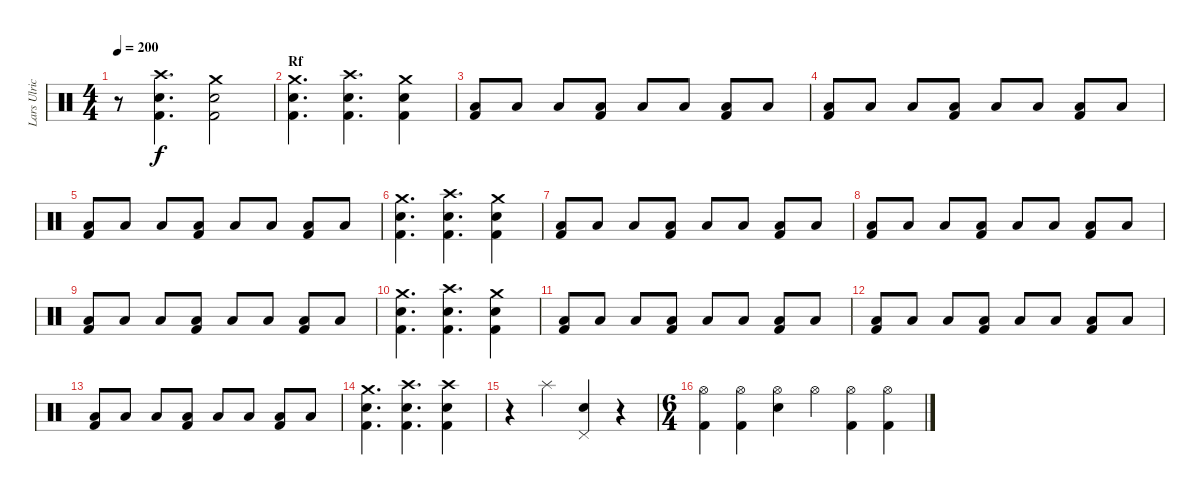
\track ("Lars Ulrich" "Lars Ulric") {instrument percussion}
\staff {score}
\articulation defaults
\ts (4 4)
\tempo 200
\clef neutral
\ks c
r.8{dy f} ("Crash high (hit)" "Electric Snare (hit)" "Kick (hit) 2").4{d} ("Crash medium (hit)" "Electric Snare (hit)" "Kick (hit) 2").2 |
\section ("" "Rf")
("Crash medium (hit)" "Electric Snare (hit)" "Kick (hit) 2").4{d} ("Crash high (hit)" "Electric Snare (hit)" "Kick (hit) 2").4{d} ("Crash medium (hit)" "Electric Snare (hit)" "Kick (hit) 2").4 |
("Low Floor Tom (hit)" "Kick (hit) 2").8 "Low Floor Tom (hit)".8 "Low Floor Tom (hit)".8 ("Low Floor Tom (hit)" "Kick (hit) 2").8 "Low Floor Tom (hit)".8 "Low Floor Tom (hit)".8 ("Low Floor Tom (hit)" "Kick (hit) 2").8 "Low Floor Tom (hit)".8 |
("Low Floor Tom (hit)" "Kick (hit) 2").8 "Low Floor Tom (hit)".8 "Low Floor Tom (hit)".8 ("Low Floor Tom (hit)" "Kick (hit) 2").8 "Low Floor Tom (hit)".8 "Low Floor Tom (hit)".8 ("Low Floor Tom (hit)" "Kick (hit) 2").8 "Low Floor Tom (hit)".8 |
("Low Floor Tom (hit)" "Kick (hit) 2").8 "Low Floor Tom (hit)".8 "Low Floor Tom (hit)".8 ("Low Floor Tom (hit)" "Kick (hit) 2").8 "Low Floor Tom (hit)".8 "Low Floor Tom (hit)".8 ("Low Floor Tom (hit)" "Kick (hit) 2").8 "Low Floor Tom (hit)".8 |
("Crash medium (hit)" "Electric Snare (hit)" "Kick (hit) 2").4{d} ("Crash high (hit)" "Electric Snare (hit)" "Kick (hit) 2").4{d} ("Crash medium (hit)" "Electric Snare (hit)" "Kick (hit) 2").4 |
("Low Floor Tom (hit)" "Kick (hit) 2").8 "Low Floor Tom (hit)".8 "Low Floor Tom (hit)".8 ("Low Floor Tom (hit)" "Kick (hit) 2").8 "Low Floor Tom (hit)".8 "Low Floor Tom (hit)".8 ("Low Floor Tom (hit)" "Kick (hit) 2").8 "Low Floor Tom (hit)".8 |
("Low Floor Tom (hit)" "Kick (hit) 2").8 "Low Floor Tom (hit)".8 "Low Floor Tom (hit)".8 ("Low Floor Tom (hit)" "Kick (hit) 2").8 "Low Floor Tom (hit)".8 "Low Floor Tom (hit)".8 ("Low Floor Tom (hit)" "Kick (hit) 2").8 "Low Floor Tom (hit)".8 |
("Low Floor Tom (hit)" "Kick (hit) 2").8 "Low Floor Tom (hit)".8 "Low Floor Tom (hit)".8 ("Low Floor Tom (hit)" "Kick (hit) 2").8 "Low Floor Tom (hit)".8 "Low Floor Tom (hit)".8 ("Low Floor Tom (hit)" "Kick (hit) 2").8 "Low Floor Tom (hit)".8 |
("Crash medium (hit)" "Electric Snare (hit)" "Kick (hit) 2").4{d} ("Crash high (hit)" "Electric Snare (hit)" "Kick (hit) 2").4{d} ("Crash medium (hit)" "Electric Snare (hit)" "Kick (hit) 2").4 |
("Low Floor Tom (hit)" "Kick (hit) 2").8 "Low Floor Tom (hit)".8 "Low Floor Tom (hit)".8 ("Low Floor Tom (hit)" "Kick (hit) 2").8 "Low Floor Tom (hit)".8 "Low Floor Tom (hit)".8 ("Low Floor Tom (hit)" "Kick (hit) 2").8 "Low Floor Tom (hit)".8 |
("Low Floor Tom (hit)" "Kick (hit) 2").8 "Low Floor Tom (hit)".8 "Low Floor Tom (hit)".8 ("Low Floor Tom (hit)" "Kick (hit) 2").8 "Low Floor Tom (hit)".8 "Low Floor Tom (hit)".8 ("Low Floor Tom (hit)" "Kick (hit) 2").8 "Low Floor Tom (hit)".8 |
("Low Floor Tom (hit)" "Kick (hit) 2").8 "Low Floor Tom (hit)".8 "Low Floor Tom (hit)".8 ("Low Floor Tom (hit)" "Kick (hit) 2").8 "Low Floor Tom (hit)".8 "Low Floor Tom (hit)".8 ("Low Floor Tom (hit)" "Kick (hit) 2").8 "Low Floor Tom (hit)".8 |
("Crash medium (hit)" "Electric Snare (hit)" "Kick (hit) 2").4{d} ("Crash high (hit)" "Electric Snare (hit)" "Kick (hit) 2").4{d} ("Crash high (hit)" "Electric Snare (hit)" "Kick (hit) 2").4 |
r.4 "Splash (hit)".4 ("Pedal Hi-Hat (hit)" "Electric Snare (hit)").4 r.4 |
\ts (6 4)
("Hi-Hat (open)" "Kick (hit) 2").4 ("Hi-Hat (open)" "Kick (hit) 2").4 ("Hi-Hat (open)" "Electric Snare (hit)").4 "Hi-Hat (open)".4 ("Hi-Hat (open)" "Kick (hit) 2").4 ("Hi-Hat (open)" "Kick (hit) 2").4
